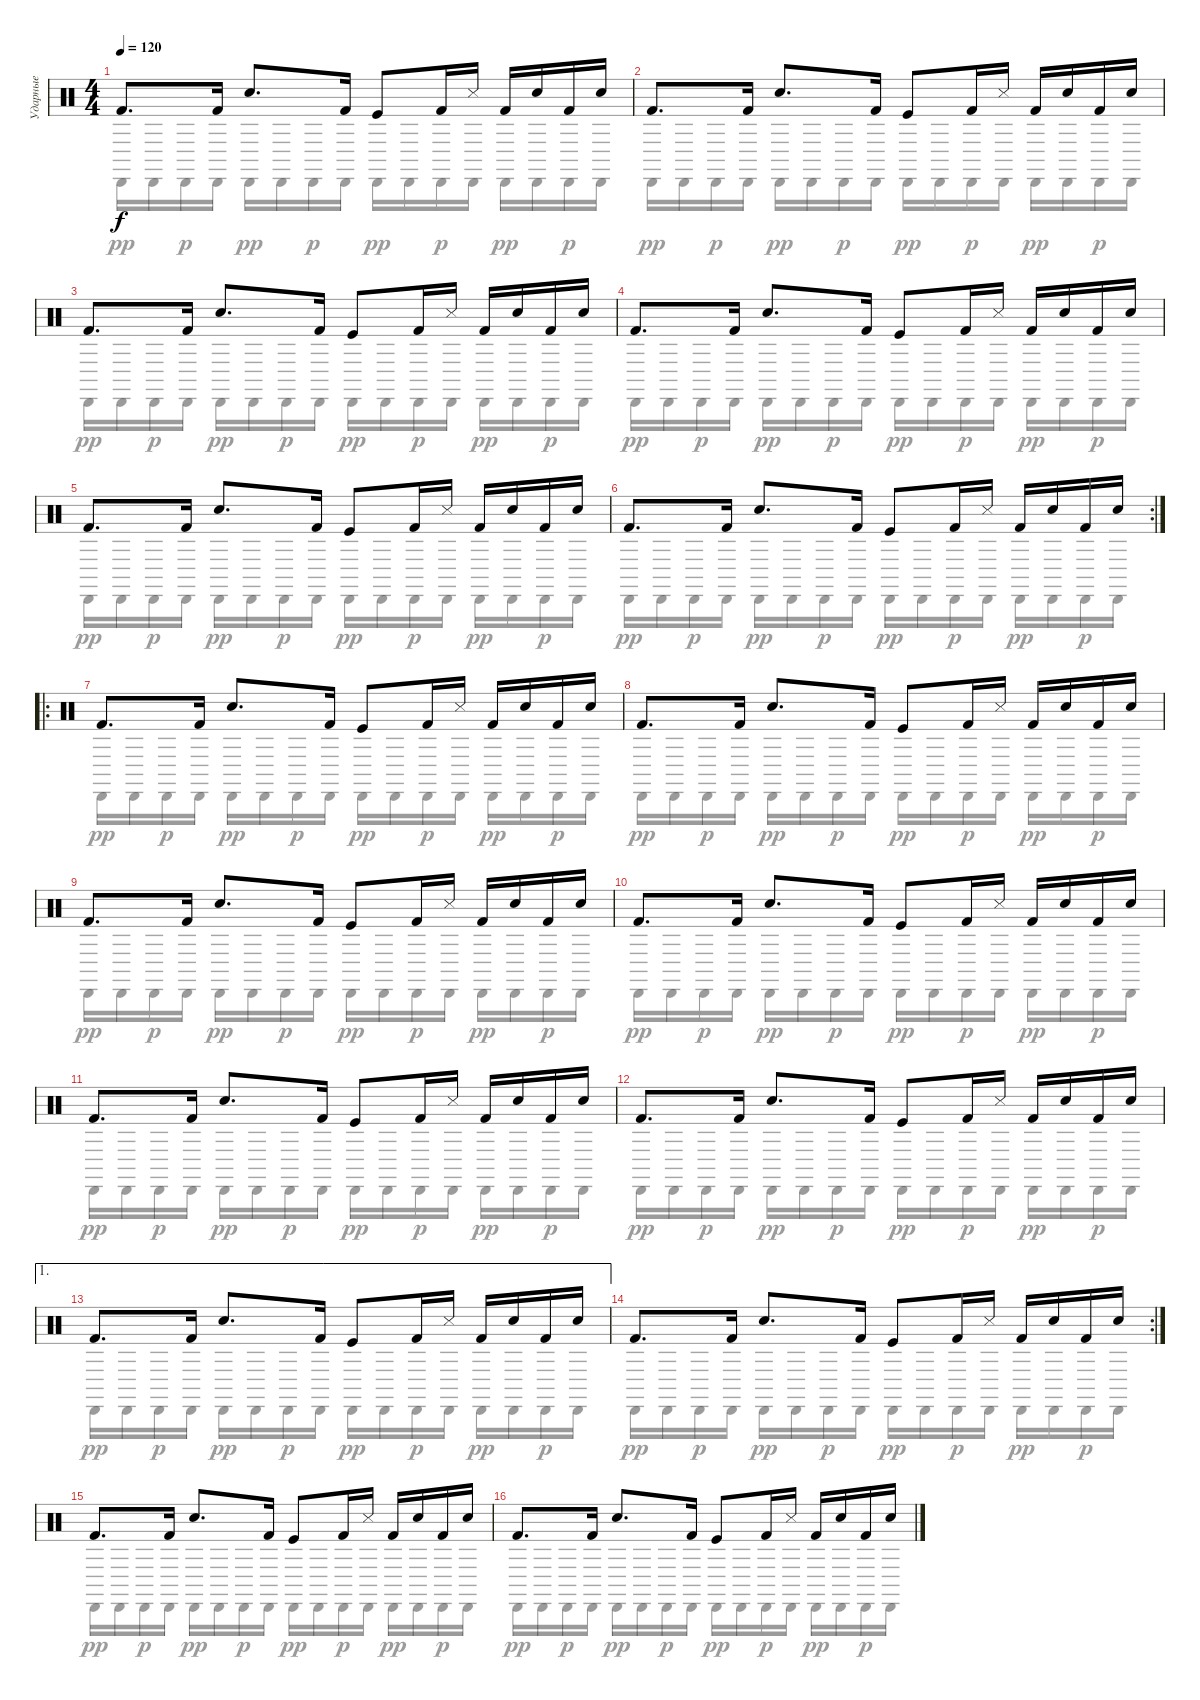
\track ("Ударные" "Ударные") {instrument percussion}
\staff {score}
\articulation defaults
\voice
\ts (4 4)
\tempo 120
\clef neutral
\ks c "Kick (hit) 2".8{d dy f} "Kick (hit) 2".16 "Electric Snare (hit)".8{d} "Kick (hit) 2".16 "Kick (hit)".8 "Kick (hit) 2".16 "Metronome (hit)".16 "Kick (hit) 2".16 "Electric Snare (hit)".16 "Kick (hit) 2".16 "Electric Snare (hit)".16
|
"Kick (hit) 2".8{d} "Kick (hit) 2".16 "Electric Snare (hit)".8{d} "Kick (hit) 2".16 "Kick (hit)".8 "Kick (hit) 2".16 "Metronome (hit)".16 "Kick (hit) 2".16 "Electric Snare (hit)".16 "Kick (hit) 2".16 "Electric Snare (hit)".16 |
"Kick (hit) 2".8{d} "Kick (hit) 2".16 "Electric Snare (hit)".8{d} "Kick (hit) 2".16 "Kick (hit)".8 "Kick (hit) 2".16 "Metronome (hit)".16 "Kick (hit) 2".16 "Electric Snare (hit)".16 "Kick (hit) 2".16 "Electric Snare (hit)".16 |
"Kick (hit) 2".8{d} "Kick (hit) 2".16 "Electric Snare (hit)".8{d} "Kick (hit) 2".16 "Kick (hit)".8 "Kick (hit) 2".16 "Metronome (hit)".16 "Kick (hit) 2".16 "Electric Snare (hit)".16 "Kick (hit) 2".16 "Electric Snare (hit)".16 |
"Kick (hit) 2".8{d} "Kick (hit) 2".16 "Electric Snare (hit)".8{d} "Kick (hit) 2".16 "Kick (hit)".8 "Kick (hit) 2".16 "Metronome (hit)".16 "Kick (hit) 2".16 "Electric Snare (hit)".16 "Kick (hit) 2".16 "Electric Snare (hit)".16 |
\rc 2 "Kick (hit) 2".8{d} "Kick (hit) 2".16 "Electric Snare (hit)".8{d} "Kick (hit) 2".16 "Kick (hit)".8 "Kick (hit) 2".16 "Metronome (hit)".16 "Kick (hit) 2".16 "Electric Snare (hit)".16 "Kick (hit) 2".16 "Electric Snare (hit)".16
|
\ro "Kick (hit) 2".8{d} "Kick (hit) 2".16 "Electric Snare (hit)".8{d} "Kick (hit) 2".16 "Kick (hit)".8 "Kick (hit) 2".16 "Metronome (hit)".16 "Kick (hit) 2".16 "Electric Snare (hit)".16 "Kick (hit) 2".16 "Electric Snare (hit)".16
|
"Kick (hit) 2".8{d} "Kick (hit) 2".16 "Electric Snare (hit)".8{d} "Kick (hit) 2".16 "Kick (hit)".8 "Kick (hit) 2".16 "Metronome (hit)".16 "Kick (hit) 2".16 "Electric Snare (hit)".16 "Kick (hit) 2".16 "Electric Snare (hit)".16 |
"Kick (hit) 2".8{d} "Kick (hit) 2".16 "Electric Snare (hit)".8{d} "Kick (hit) 2".16 "Kick (hit)".8 "Kick (hit) 2".16 "Metronome (hit)".16 "Kick (hit) 2".16 "Electric Snare (hit)".16 "Kick (hit) 2".16 "Electric Snare (hit)".16 |
"Kick (hit) 2".8{d} "Kick (hit) 2".16 "Electric Snare (hit)".8{d} "Kick (hit) 2".16 "Kick (hit)".8 "Kick (hit) 2".16 "Metronome (hit)".16 "Kick (hit) 2".16 "Electric Snare (hit)".16 "Kick (hit) 2".16 "Electric Snare (hit)".16 |
"Kick (hit) 2".8{d} "Kick (hit) 2".16 "Electric Snare (hit)".8{d} "Kick (hit) 2".16 "Kick (hit)".8 "Kick (hit) 2".16 "Metronome (hit)".16 "Kick (hit) 2".16 "Electric Snare (hit)".16 "Kick (hit) 2".16 "Electric Snare (hit)".16 |
"Kick (hit) 2".8{d} "Kick (hit) 2".16 "Electric Snare (hit)".8{d} "Kick (hit) 2".16 "Kick (hit)".8 "Kick (hit) 2".16 "Metronome (hit)".16 "Kick (hit) 2".16 "Electric Snare (hit)".16 "Kick (hit) 2".16 "Electric Snare (hit)".16 |
\ae 1 "Kick (hit) 2".8{d} "Kick (hit) 2".16 "Electric Snare (hit)".8{d} "Kick (hit) 2".16 "Kick (hit)".8 "Kick (hit) 2".16 "Metronome (hit)".16 "Kick (hit) 2".16 "Electric Snare (hit)".16 "Kick (hit) 2".16 "Electric Snare (hit)".16
|
\rc 2 "Kick (hit) 2".8{d} "Kick (hit) 2".16 "Electric Snare (hit)".8{d} "Kick (hit) 2".16 "Kick (hit)".8 "Kick (hit) 2".16 "Metronome (hit)".16 "Kick (hit) 2".16 "Electric Snare (hit)".16 "Kick (hit) 2".16 "Electric Snare (hit)".16
|
"Kick (hit) 2".8{d} "Kick (hit) 2".16 "Electric Snare (hit)".8{d} "Kick (hit) 2".16 "Kick (hit)".8 "Kick (hit) 2".16 "Metronome (hit)".16 "Kick (hit) 2".16 "Electric Snare (hit)".16 "Kick (hit) 2".16 "Electric Snare (hit)".16 |
"Kick (hit) 2".8{d} "Kick (hit) 2".16 "Electric Snare (hit)".8{d} "Kick (hit) 2".16 "Kick (hit)".8 "Kick (hit) 2".16 "Metronome (hit)".16 "Kick (hit) 2".16 "Electric Snare (hit)".16 "Kick (hit) 2".16 "Electric Snare (hit)".16
\voice
\clef neutral
\ottava regular
\simile none
\ks c "Cabasa (hit)".16{dy pp} "Cabasa (hit)".16 "Cabasa (hit)".16{dy p} "Cabasa (hit)".16 "Cabasa (hit)".16{dy pp} "Cabasa (hit)".16 "Cabasa (hit)".16{dy p} "Cabasa (hit)".16 "Cabasa (hit)".16{dy pp} "Cabasa (hit)".16 "Cabasa (hit)".16{dy p} "Cabasa (hit)".16 "Cabasa (hit)".16{dy pp} "Cabasa (hit)".16 "Cabasa (hit)".16{dy p} "Cabasa (hit)".16
|
"Cabasa (hit)".16{dy pp} "Cabasa (hit)".16 "Cabasa (hit)".16{dy p} "Cabasa (hit)".16 "Cabasa (hit)".16{dy pp} "Cabasa (hit)".16 "Cabasa (hit)".16{dy p} "Cabasa (hit)".16 "Cabasa (hit)".16{dy pp} "Cabasa (hit)".16 "Cabasa (hit)".16{dy p} "Cabasa (hit)".16 "Cabasa (hit)".16{dy pp} "Cabasa (hit)".16 "Cabasa (hit)".16{dy p} "Cabasa (hit)".16 |
"Cabasa (hit)".16{dy pp} "Cabasa (hit)".16 "Cabasa (hit)".16{dy p} "Cabasa (hit)".16 "Cabasa (hit)".16{dy pp} "Cabasa (hit)".16 "Cabasa (hit)".16{dy p} "Cabasa (hit)".16 "Cabasa (hit)".16{dy pp} "Cabasa (hit)".16 "Cabasa (hit)".16{dy p} "Cabasa (hit)".16 "Cabasa (hit)".16{dy pp} "Cabasa (hit)".16 "Cabasa (hit)".16{dy p} "Cabasa (hit)".16 |
"Cabasa (hit)".16{dy pp} "Cabasa (hit)".16 "Cabasa (hit)".16{dy p} "Cabasa (hit)".16 "Cabasa (hit)".16{dy pp} "Cabasa (hit)".16 "Cabasa (hit)".16{dy p} "Cabasa (hit)".16 "Cabasa (hit)".16{dy pp} "Cabasa (hit)".16 "Cabasa (hit)".16{dy p} "Cabasa (hit)".16 "Cabasa (hit)".16{dy pp} "Cabasa (hit)".16 "Cabasa (hit)".16{dy p} "Cabasa (hit)".16 |
"Cabasa (hit)".16{dy pp} "Cabasa (hit)".16 "Cabasa (hit)".16{dy p} "Cabasa (hit)".16 "Cabasa (hit)".16{dy pp} "Cabasa (hit)".16 "Cabasa (hit)".16{dy p} "Cabasa (hit)".16 "Cabasa (hit)".16{dy pp} "Cabasa (hit)".16 "Cabasa (hit)".16{dy p} "Cabasa (hit)".16 "Cabasa (hit)".16{dy pp} "Cabasa (hit)".16 "Cabasa (hit)".16{dy p} "Cabasa (hit)".16 |
"Cabasa (hit)".16{dy pp} "Cabasa (hit)".16 "Cabasa (hit)".16{dy p} "Cabasa (hit)".16 "Cabasa (hit)".16{dy pp} "Cabasa (hit)".16 "Cabasa (hit)".16{dy p} "Cabasa (hit)".16 "Cabasa (hit)".16{dy pp} "Cabasa (hit)".16 "Cabasa (hit)".16{dy p} "Cabasa (hit)".16 "Cabasa (hit)".16{dy pp} "Cabasa (hit)".16 "Cabasa (hit)".16{dy p} "Cabasa (hit)".16 |
"Cabasa (hit)".16{dy pp} "Cabasa (hit)".16 "Cabasa (hit)".16{dy p} "Cabasa (hit)".16 "Cabasa (hit)".16{dy pp} "Cabasa (hit)".16 "Cabasa (hit)".16{dy p} "Cabasa (hit)".16 "Cabasa (hit)".16{dy pp} "Cabasa (hit)".16 "Cabasa (hit)".16{dy p} "Cabasa (hit)".16 "Cabasa (hit)".16{dy pp} "Cabasa (hit)".16 "Cabasa (hit)".16{dy p} "Cabasa (hit)".16 |
"Cabasa (hit)".16{dy pp} "Cabasa (hit)".16 "Cabasa (hit)".16{dy p} "Cabasa (hit)".16 "Cabasa (hit)".16{dy pp} "Cabasa (hit)".16 "Cabasa (hit)".16{dy p} "Cabasa (hit)".16 "Cabasa (hit)".16{dy pp} "Cabasa (hit)".16 "Cabasa (hit)".16{dy p} "Cabasa (hit)".16 "Cabasa (hit)".16{dy pp} "Cabasa (hit)".16 "Cabasa (hit)".16{dy p} "Cabasa (hit)".16 |
"Cabasa (hit)".16{dy pp} "Cabasa (hit)".16 "Cabasa (hit)".16{dy p} "Cabasa (hit)".16 "Cabasa (hit)".16{dy pp} "Cabasa (hit)".16 "Cabasa (hit)".16{dy p} "Cabasa (hit)".16 "Cabasa (hit)".16{dy pp} "Cabasa (hit)".16 "Cabasa (hit)".16{dy p} "Cabasa (hit)".16 "Cabasa (hit)".16{dy pp} "Cabasa (hit)".16 "Cabasa (hit)".16{dy p} "Cabasa (hit)".16 |
"Cabasa (hit)".16{dy pp} "Cabasa (hit)".16 "Cabasa (hit)".16{dy p} "Cabasa (hit)".16 "Cabasa (hit)".16{dy pp} "Cabasa (hit)".16 "Cabasa (hit)".16{dy p} "Cabasa (hit)".16 "Cabasa (hit)".16{dy pp} "Cabasa (hit)".16 "Cabasa (hit)".16{dy p} "Cabasa (hit)".16 "Cabasa (hit)".16{dy pp} "Cabasa (hit)".16 "Cabasa (hit)".16{dy p} "Cabasa (hit)".16 |
"Cabasa (hit)".16{dy pp} "Cabasa (hit)".16 "Cabasa (hit)".16{dy p} "Cabasa (hit)".16 "Cabasa (hit)".16{dy pp} "Cabasa (hit)".16 "Cabasa (hit)".16{dy p} "Cabasa (hit)".16 "Cabasa (hit)".16{dy pp} "Cabasa (hit)".16 "Cabasa (hit)".16{dy p} "Cabasa (hit)".16 "Cabasa (hit)".16{dy pp} "Cabasa (hit)".16 "Cabasa (hit)".16{dy p} "Cabasa (hit)".16 |
"Cabasa (hit)".16{dy pp} "Cabasa (hit)".16 "Cabasa (hit)".16{dy p} "Cabasa (hit)".16 "Cabasa (hit)".16{dy pp} "Cabasa (hit)".16 "Cabasa (hit)".16{dy p} "Cabasa (hit)".16 "Cabasa (hit)".16{dy pp} "Cabasa (hit)".16 "Cabasa (hit)".16{dy p} "Cabasa (hit)".16 "Cabasa (hit)".16{dy pp} "Cabasa (hit)".16 "Cabasa (hit)".16{dy p} "Cabasa (hit)".16 |
"Cabasa (hit)".16{dy pp} "Cabasa (hit)".16 "Cabasa (hit)".16{dy p} "Cabasa (hit)".16 "Cabasa (hit)".16{dy pp} "Cabasa (hit)".16 "Cabasa (hit)".16{dy p} "Cabasa (hit)".16 "Cabasa (hit)".16{dy pp} "Cabasa (hit)".16 "Cabasa (hit)".16{dy p} "Cabasa (hit)".16 "Cabasa (hit)".16{dy pp} "Cabasa (hit)".16 "Cabasa (hit)".16{dy p} "Cabasa (hit)".16 |
"Cabasa (hit)".16{dy pp} "Cabasa (hit)".16 "Cabasa (hit)".16{dy p} "Cabasa (hit)".16 "Cabasa (hit)".16{dy pp} "Cabasa (hit)".16 "Cabasa (hit)".16{dy p} "Cabasa (hit)".16 "Cabasa (hit)".16{dy pp} "Cabasa (hit)".16 "Cabasa (hit)".16{dy p} "Cabasa (hit)".16 "Cabasa (hit)".16{dy pp} "Cabasa (hit)".16 "Cabasa (hit)".16{dy p} "Cabasa (hit)".16 |
"Cabasa (hit)".16{dy pp} "Cabasa (hit)".16 "Cabasa (hit)".16{dy p} "Cabasa (hit)".16 "Cabasa (hit)".16{dy pp} "Cabasa (hit)".16 "Cabasa (hit)".16{dy p} "Cabasa (hit)".16 "Cabasa (hit)".16{dy pp} "Cabasa (hit)".16 "Cabasa (hit)".16{dy p} "Cabasa (hit)".16 "Cabasa (hit)".16{dy pp} "Cabasa (hit)".16 "Cabasa (hit)".16{dy p} "Cabasa (hit)".16 |
"Cabasa (hit)".16{dy pp} "Cabasa (hit)".16 "Cabasa (hit)".16{dy p} "Cabasa (hit)".16 "Cabasa (hit)".16{dy pp} "Cabasa (hit)".16 "Cabasa (hit)".16{dy p} "Cabasa (hit)".16 "Cabasa (hit)".16{dy pp} "Cabasa (hit)".16 "Cabasa (hit)".16{dy p} "Cabasa (hit)".16 "Cabasa (hit)".16{dy pp} "Cabasa (hit)".16 "Cabasa (hit)".16{dy p} "Cabasa (hit)".16
